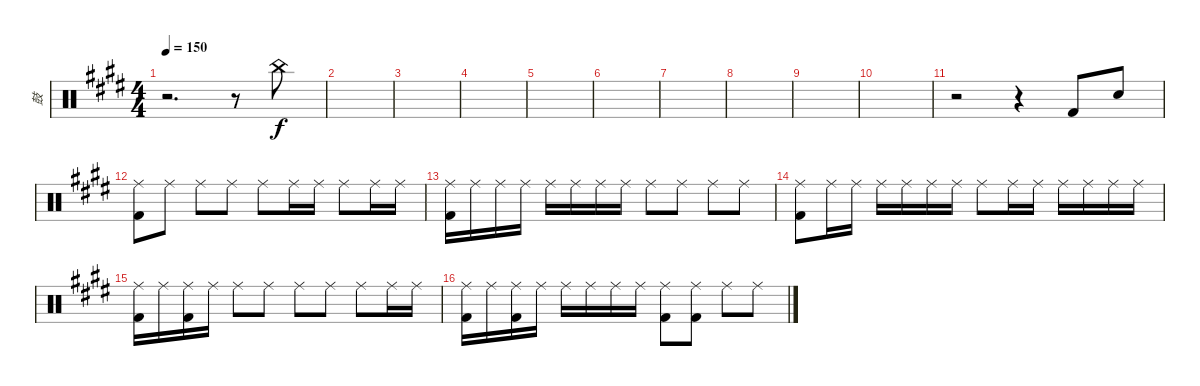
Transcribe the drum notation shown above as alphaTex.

\track ("鼓" "鼓") {instrument percussion}
\staff {score}
\articulation defaults
\ts (4 4)
\tempo 150
\clef neutral
\ks e
r.2{d dy f} r.8 "China (hit)".8 |
|
|
|
|
|
|
|
|
|
r.2 r.4 "Kick (hit) 2".8 "Snare (hit) 2".8 |
("Ride (middle)" "Kick (hit) 2").8 "Ride (middle)".8 "Ride (middle)".8 "Ride (middle)".8 "Ride (middle)".8 "Ride (middle)".16 "Ride (middle)".16 "Ride (middle)".8 "Ride (middle)".16 "Ride (middle)".16 |
("Ride (middle)" "Kick (hit) 2").16 "Ride (middle)".16 "Ride (middle)".16 "Ride (middle)".16 "Ride (middle)".16 "Ride (middle)".16 "Ride (middle)".16 "Ride (middle)".16 "Ride (middle)".8 "Ride (middle)".8 "Ride (middle)".8 "Ride (middle)".8 |
("Ride (middle)" "Kick (hit) 2").8 "Ride (middle)".16 "Ride (middle)".16 "Ride (middle)".16 "Ride (middle)".16 "Ride (middle)".16 "Ride (middle)".16 "Ride (middle)".8 "Ride (middle)".16 "Ride (middle)".16 "Ride (middle)".16 "Ride (middle)".16 "Ride (middle)".16 "Ride (middle)".16 |
("Ride (middle)" "Kick (hit) 2").16 "Ride (middle)".16 ("Ride (middle)" "Kick (hit) 2").16 "Ride (middle)".16 "Ride (middle)".8 "Ride (middle)".8 "Ride (middle)".8 "Ride (middle)".8 "Ride (middle)".8 "Ride (middle)".16 "Ride (middle)".16 |
("Ride (middle)" "Kick (hit) 2").16 "Ride (middle)".16 ("Ride (middle)" "Kick (hit) 2").16 "Ride (middle)".16 "Ride (middle)".16 "Ride (middle)".16 "Ride (middle)".16 "Ride (middle)".16 ("Ride (middle)" "Kick (hit) 2").8 ("Ride (middle)" "Kick (hit) 2").8 "Ride (middle)".8 "Ride (middle)".8
